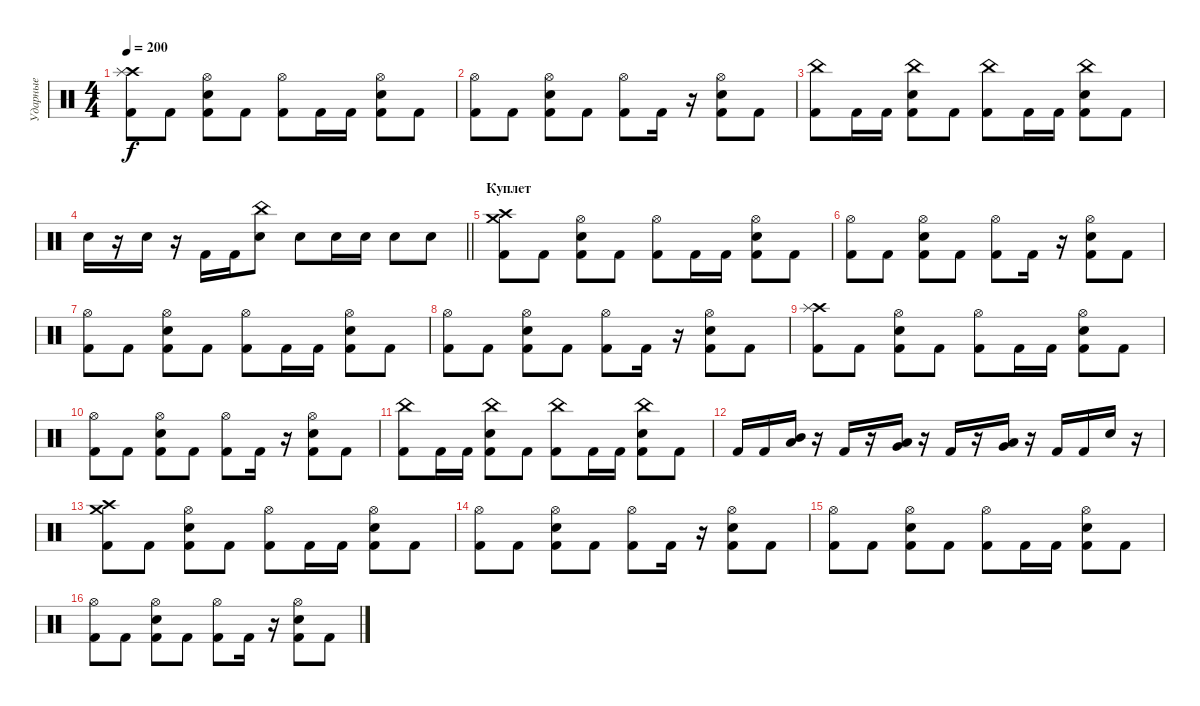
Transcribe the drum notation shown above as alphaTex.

\track ("Ударные" "Ударные") {instrument percussion}
\staff {score}
\articulation defaults
\ts (4 4)
\tempo 200
\clef neutral
\ks c
("Kick (hit) 2" "Crash high (hit)" "Splash (hit)").8{dy f} "Kick (hit) 2".8 ("Kick (hit) 2" "Electric Snare (hit)" "Hi-Hat (open)").8 "Kick (hit) 2".8 ("Kick (hit) 2" "Hi-Hat (open)").8 "Kick (hit) 2".16 "Kick (hit) 2".16 ("Kick (hit) 2" "Electric Snare (hit)" "Hi-Hat (open)").8 "Kick (hit) 2".8 |
("Kick (hit) 2" "Hi-Hat (open)").8 "Kick (hit) 2".8 ("Kick (hit) 2" "Electric Snare (hit)" "Hi-Hat (open)").8 "Kick (hit) 2".8 ("Kick (hit) 2" "Hi-Hat (open)").8 "Kick (hit) 2".16 r.16 ("Kick (hit) 2" "Electric Snare (hit)" "Hi-Hat (open)").8 "Kick (hit) 2".8 |
("Kick (hit) 2" "China (hit)").8 "Kick (hit) 2".16 "Kick (hit) 2".16 ("Kick (hit) 2" "Electric Snare (hit)" "China (hit)").8 "Kick (hit) 2".8 ("Kick (hit) 2" "China (hit)").8 "Kick (hit) 2".16 "Kick (hit) 2".16 ("Kick (hit) 2" "Electric Snare (hit)" "China (hit)").8 "Kick (hit) 2".8 |
\barLineRight lightlight "Electric Snare (hit)".16
r.16 "Electric Snare (hit)".16 r.16 "Kick (hit) 2".16 "Kick (hit) 2".16 ("Electric Snare (hit)" "China (hit)").8 "Electric Snare (hit)".8 "Electric Snare (hit)".16 "Electric Snare (hit)".16 "Electric Snare (hit)".8 "Electric Snare (hit)".8 |
\section ("" "Куплет")
("Kick (hit) 2" "Crash high (hit)" "Crash medium (hit)").8 "Kick (hit) 2".8 ("Kick (hit) 2" "Electric Snare (hit)" "Hi-Hat (open)").8 "Kick (hit) 2".8 ("Kick (hit) 2" "Hi-Hat (open)").8 "Kick (hit) 2".16 "Kick (hit) 2".16 ("Kick (hit) 2" "Electric Snare (hit)" "Hi-Hat (open)").8 "Kick (hit) 2".8 |
("Kick (hit) 2" "Hi-Hat (open)").8 "Kick (hit) 2".8 ("Kick (hit) 2" "Electric Snare (hit)" "Hi-Hat (open)").8 "Kick (hit) 2".8 ("Kick (hit) 2" "Hi-Hat (open)").8 "Kick (hit) 2".16 r.16 ("Kick (hit) 2" "Electric Snare (hit)" "Hi-Hat (open)").8 "Kick (hit) 2".8 |
("Kick (hit) 2" "Hi-Hat (open)").8 "Kick (hit) 2".8 ("Kick (hit) 2" "Electric Snare (hit)" "Hi-Hat (open)").8 "Kick (hit) 2".8 ("Kick (hit) 2" "Hi-Hat (open)").8 "Kick (hit) 2".16 "Kick (hit) 2".16 ("Kick (hit) 2" "Electric Snare (hit)" "Hi-Hat (open)").8 "Kick (hit) 2".8 |
("Kick (hit) 2" "Hi-Hat (open)").8 "Kick (hit) 2".8 ("Kick (hit) 2" "Electric Snare (hit)" "Hi-Hat (open)").8 "Kick (hit) 2".8 ("Kick (hit) 2" "Hi-Hat (open)").8 "Kick (hit) 2".16 r.16 ("Kick (hit) 2" "Electric Snare (hit)" "Hi-Hat (open)").8 "Kick (hit) 2".8 |
("Kick (hit) 2" "Crash high (hit)" "Splash (hit)").8 "Kick (hit) 2".8 ("Kick (hit) 2" "Electric Snare (hit)" "Hi-Hat (open)").8 "Kick (hit) 2".8 ("Kick (hit) 2" "Hi-Hat (open)").8 "Kick (hit) 2".16 "Kick (hit) 2".16 ("Kick (hit) 2" "Electric Snare (hit)" "Hi-Hat (open)").8 "Kick (hit) 2".8 |
("Kick (hit) 2" "Hi-Hat (open)").8 "Kick (hit) 2".8 ("Kick (hit) 2" "Electric Snare (hit)" "Hi-Hat (open)").8 "Kick (hit) 2".8 ("Kick (hit) 2" "Hi-Hat (open)").8 "Kick (hit) 2".16 r.16 ("Kick (hit) 2" "Electric Snare (hit)" "Hi-Hat (open)").8 "Kick (hit) 2".8 |
("Kick (hit) 2" "China (hit)").8 "Kick (hit) 2".16 "Kick (hit) 2".16 ("Kick (hit) 2" "Electric Snare (hit)" "China (hit)").8 "Kick (hit) 2".8 ("Kick (hit) 2" "China (hit)").8 "Kick (hit) 2".16 "Kick (hit) 2".16 ("Kick (hit) 2" "Electric Snare (hit)" "China (hit)").8 "Kick (hit) 2".8 |
"Kick (hit) 2".16 "Kick (hit) 2".16 ("Low Tom (hit)" "Mid Tom (hit)").16 r.16 "Kick (hit) 2".16 r.16 ("Very Low Tom (hit)" "Low Tom (hit)").16 r.16 "Kick (hit) 2".16 r.16 ("Low Floor Tom (hit)" "Very Low Tom (hit)").16 r.16 "Kick (hit) 2".16 "Kick (hit) 2".16 "Electric Snare (hit)".16 r.16 |
("Kick (hit) 2" "Crash high (hit)" "Crash medium (hit)").8 "Kick (hit) 2".8 ("Kick (hit) 2" "Electric Snare (hit)" "Hi-Hat (open)").8 "Kick (hit) 2".8 ("Kick (hit) 2" "Hi-Hat (open)").8 "Kick (hit) 2".16 "Kick (hit) 2".16 ("Kick (hit) 2" "Electric Snare (hit)" "Hi-Hat (open)").8 "Kick (hit) 2".8 |
("Kick (hit) 2" "Hi-Hat (open)").8 "Kick (hit) 2".8 ("Kick (hit) 2" "Electric Snare (hit)" "Hi-Hat (open)").8 "Kick (hit) 2".8 ("Kick (hit) 2" "Hi-Hat (open)").8 "Kick (hit) 2".16 r.16 ("Kick (hit) 2" "Electric Snare (hit)" "Hi-Hat (open)").8 "Kick (hit) 2".8 |
("Kick (hit) 2" "Hi-Hat (open)").8 "Kick (hit) 2".8 ("Kick (hit) 2" "Electric Snare (hit)" "Hi-Hat (open)").8 "Kick (hit) 2".8 ("Kick (hit) 2" "Hi-Hat (open)").8 "Kick (hit) 2".16 "Kick (hit) 2".16 ("Kick (hit) 2" "Electric Snare (hit)" "Hi-Hat (open)").8 "Kick (hit) 2".8 |
("Kick (hit) 2" "Hi-Hat (open)").8 "Kick (hit) 2".8 ("Kick (hit) 2" "Electric Snare (hit)" "Hi-Hat (open)").8 "Kick (hit) 2".8 ("Kick (hit) 2" "Hi-Hat (open)").8 "Kick (hit) 2".16 r.16 ("Kick (hit) 2" "Electric Snare (hit)" "Hi-Hat (open)").8 "Kick (hit) 2".8
